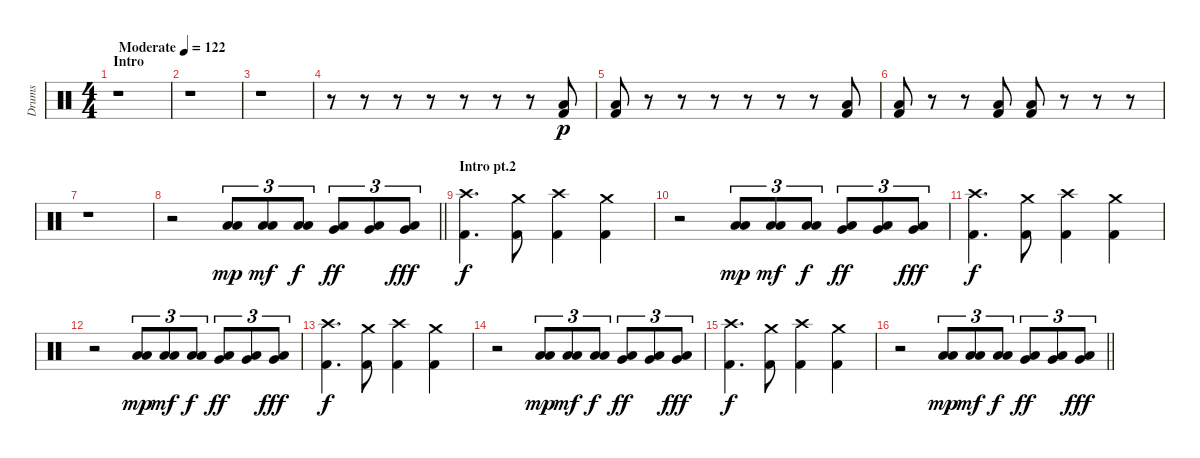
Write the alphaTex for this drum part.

\track ("Drums" "Drums") {instrument percussion}
\staff {score}
\articulation defaults
\ts (4 4)
\section ("" "Intro")
\tempo (122 "Moderate")
\clef neutral
\ks c
r.1{dy p} |
r.1 |
r.1 |
r.8 r.8 r.8 r.8 r.8 r.8 r.8 ("Low Floor Tom (hit)" "Kick (hit) 2").8 |
("Low Floor Tom (hit)" "Kick (hit) 2").8 r.8 r.8 r.8 r.8 r.8 r.8 ("Low Floor Tom (hit)" "Kick (hit) 2").8 |
("Low Floor Tom (hit)" "Kick (hit) 2").8 r.8 r.8 ("Low Floor Tom (hit)" "Kick (hit) 2").8 ("Low Floor Tom (hit)" "Kick (hit) 2").8 r.8 r.8 r.8 |
r.1 |
\barLineRight lightlight
r.2 ("Low Tom (hit)" "Low Floor Tom (hit)").8{tu (3 2) dy mp} ("Low Tom (hit)" "Low Floor Tom (hit)").8{tu (3 2) dy mf} ("Low Tom (hit)" "Low Floor Tom (hit)").8{tu (3 2) dy f} ("Very Low Tom (hit)" "Low Floor Tom (hit)").8{tu (3 2) dy ff} ("Very Low Tom (hit)" "Low Floor Tom (hit)").8{tu (3 2)} ("Very Low Tom (hit)" "Low Floor Tom (hit)").8{tu (3 2) dy fff} |
\section ("" "Intro pt.2")
("Crash high (hit)" "Kick (hit) 2").4{d dy f} ("Crash medium (hit)" "Kick (hit) 2").8 ("Crash high (hit)" "Kick (hit) 2").4 ("Crash medium (hit)" "Kick (hit) 2").4 |
r.2 ("Low Tom (hit)" "Low Floor Tom (hit)").8{tu (3 2) dy mp} ("Low Tom (hit)" "Low Floor Tom (hit)").8{tu (3 2) dy mf} ("Low Tom (hit)" "Low Floor Tom (hit)").8{tu (3 2) dy f} ("Very Low Tom (hit)" "Low Floor Tom (hit)").8{tu (3 2) dy ff} ("Very Low Tom (hit)" "Low Floor Tom (hit)").8{tu (3 2)} ("Very Low Tom (hit)" "Low Floor Tom (hit)").8{tu (3 2) dy fff} |
("Crash high (hit)" "Kick (hit) 2").4{d dy f} ("Crash medium (hit)" "Kick (hit) 2").8 ("Crash high (hit)" "Kick (hit) 2").4 ("Crash medium (hit)" "Kick (hit) 2").4 |
r.2 ("Low Tom (hit)" "Low Floor Tom (hit)").8{tu (3 2) dy mp} ("Low Tom (hit)" "Low Floor Tom (hit)").8{tu (3 2) dy mf} ("Low Tom (hit)" "Low Floor Tom (hit)").8{tu (3 2) dy f} ("Very Low Tom (hit)" "Low Floor Tom (hit)").8{tu (3 2) dy ff} ("Very Low Tom (hit)" "Low Floor Tom (hit)").8{tu (3 2)} ("Very Low Tom (hit)" "Low Floor Tom (hit)").8{tu (3 2) dy fff} |
("Crash high (hit)" "Kick (hit) 2").4{d dy f} ("Crash medium (hit)" "Kick (hit) 2").8 ("Crash high (hit)" "Kick (hit) 2").4 ("Crash medium (hit)" "Kick (hit) 2").4 |
r.2 ("Low Tom (hit)" "Low Floor Tom (hit)").8{tu (3 2) dy mp} ("Low Tom (hit)" "Low Floor Tom (hit)").8{tu (3 2) dy mf} ("Low Tom (hit)" "Low Floor Tom (hit)").8{tu (3 2) dy f} ("Very Low Tom (hit)" "Low Floor Tom (hit)").8{tu (3 2) dy ff} ("Very Low Tom (hit)" "Low Floor Tom (hit)").8{tu (3 2)} ("Very Low Tom (hit)" "Low Floor Tom (hit)").8{tu (3 2) dy fff} |
("Crash high (hit)" "Kick (hit) 2").4{d dy f} ("Crash medium (hit)" "Kick (hit) 2").8 ("Crash high (hit)" "Kick (hit) 2").4 ("Crash medium (hit)" "Kick (hit) 2").4 |
\barLineRight lightlight
r.2 ("Low Tom (hit)" "Low Floor Tom (hit)").8{tu (3 2) dy mp} ("Low Tom (hit)" "Low Floor Tom (hit)").8{tu (3 2) dy mf} ("Low Tom (hit)" "Low Floor Tom (hit)").8{tu (3 2) dy f} ("Very Low Tom (hit)" "Low Floor Tom (hit)").8{tu (3 2) dy ff} ("Very Low Tom (hit)" "Low Floor Tom (hit)").8{tu (3 2)} ("Very Low Tom (hit)" "Low Floor Tom (hit)").8{tu (3 2) dy fff}
